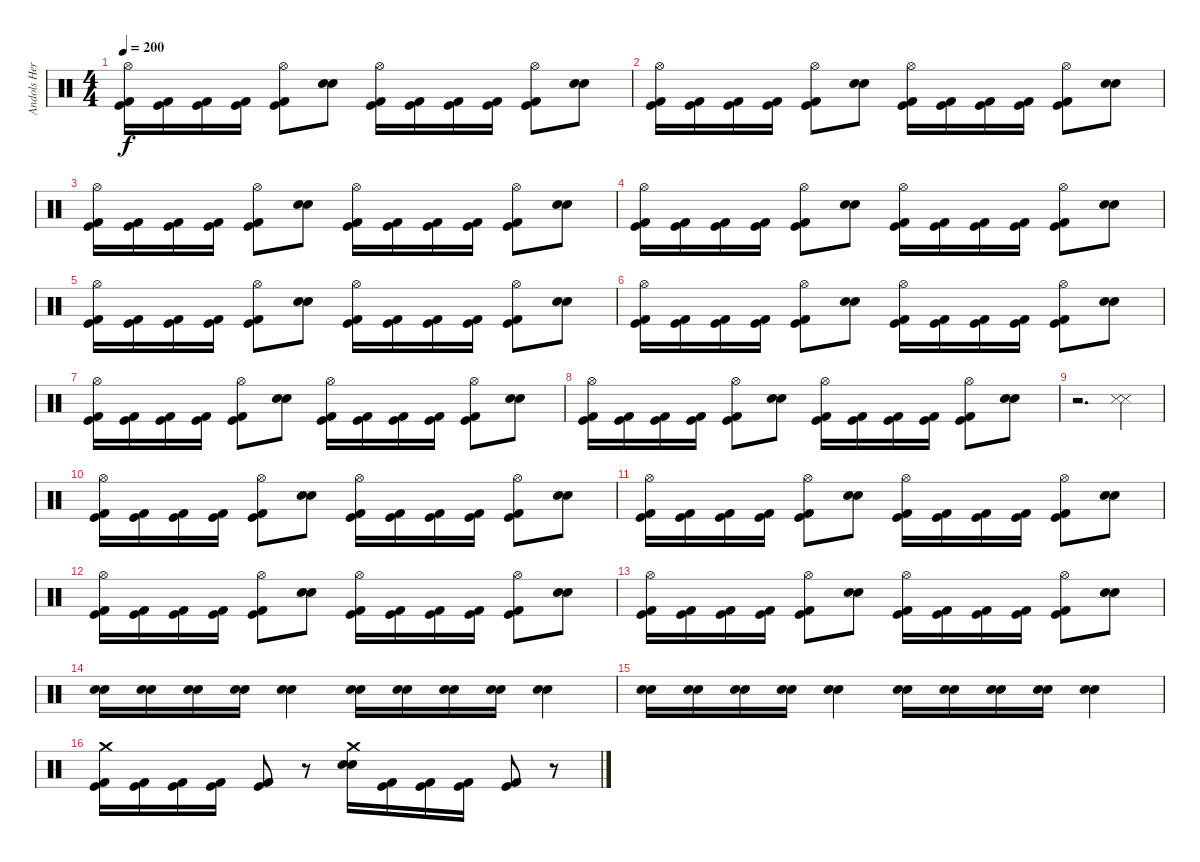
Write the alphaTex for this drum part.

\track ("Andols Herrick" "Andols Her") {instrument percussion}
\staff {score}
\articulation defaults
\ts (4 4)
\tempo 200
\tempo 190
\tempo 200
\clef neutral
\ks c
("Hi-Hat (open)" "Kick (hit) 2" "Kick (hit)").16{dy f volume 8 balance 0} ("Kick (hit) 2" "Kick (hit)").16 ("Kick (hit) 2" "Kick (hit)").16 ("Kick (hit) 2" "Kick (hit)").16 ("Hi-Hat (open)" "Kick (hit) 2" "Kick (hit)").8 ("Electric Snare (hit)" "Snare (hit) 2").8 ("Hi-Hat (open)" "Kick (hit) 2" "Kick (hit)").16 ("Kick (hit) 2" "Kick (hit)").16 ("Kick (hit) 2" "Kick (hit)").16 ("Kick (hit) 2" "Kick (hit)").16 ("Hi-Hat (open)" "Kick (hit) 2" "Kick (hit)").8 ("Electric Snare (hit)" "Snare (hit) 2").8 |
("Hi-Hat (open)" "Kick (hit) 2" "Kick (hit)").16 ("Kick (hit) 2" "Kick (hit)").16 ("Kick (hit) 2" "Kick (hit)").16 ("Kick (hit) 2" "Kick (hit)").16 ("Hi-Hat (open)" "Kick (hit) 2" "Kick (hit)").8 ("Electric Snare (hit)" "Snare (hit) 2").8 ("Hi-Hat (open)" "Kick (hit) 2" "Kick (hit)").16 ("Kick (hit) 2" "Kick (hit)").16 ("Kick (hit) 2" "Kick (hit)").16 ("Kick (hit) 2" "Kick (hit)").16 ("Hi-Hat (open)" "Kick (hit) 2" "Kick (hit)").8 ("Electric Snare (hit)" "Snare (hit) 2").8 |
("Hi-Hat (open)" "Kick (hit) 2" "Kick (hit)").16 ("Kick (hit) 2" "Kick (hit)").16 ("Kick (hit) 2" "Kick (hit)").16 ("Kick (hit) 2" "Kick (hit)").16 ("Hi-Hat (open)" "Kick (hit) 2" "Kick (hit)").8 ("Electric Snare (hit)" "Snare (hit) 2").8 ("Hi-Hat (open)" "Kick (hit) 2" "Kick (hit)").16 ("Kick (hit) 2" "Kick (hit)").16 ("Kick (hit) 2" "Kick (hit)").16 ("Kick (hit) 2" "Kick (hit)").16 ("Hi-Hat (open)" "Kick (hit) 2" "Kick (hit)").8 ("Electric Snare (hit)" "Snare (hit) 2").8 |
("Hi-Hat (open)" "Kick (hit) 2" "Kick (hit)").16 ("Kick (hit) 2" "Kick (hit)").16 ("Kick (hit) 2" "Kick (hit)").16 ("Kick (hit) 2" "Kick (hit)").16 ("Hi-Hat (open)" "Kick (hit) 2" "Kick (hit)").8 ("Electric Snare (hit)" "Snare (hit) 2").8 ("Hi-Hat (open)" "Kick (hit) 2" "Kick (hit)").16 ("Kick (hit) 2" "Kick (hit)").16 ("Kick (hit) 2" "Kick (hit)").16 ("Kick (hit) 2" "Kick (hit)").16 ("Hi-Hat (open)" "Kick (hit) 2" "Kick (hit)").8 ("Electric Snare (hit)" "Snare (hit) 2").8 |
("Hi-Hat (open)" "Kick (hit) 2" "Kick (hit)").16 ("Kick (hit) 2" "Kick (hit)").16 ("Kick (hit) 2" "Kick (hit)").16 ("Kick (hit) 2" "Kick (hit)").16 ("Hi-Hat (open)" "Kick (hit) 2" "Kick (hit)").8 ("Electric Snare (hit)" "Snare (hit) 2").8 ("Hi-Hat (open)" "Kick (hit) 2" "Kick (hit)").16 ("Kick (hit) 2" "Kick (hit)").16 ("Kick (hit) 2" "Kick (hit)").16 ("Kick (hit) 2" "Kick (hit)").16 ("Hi-Hat (open)" "Kick (hit) 2" "Kick (hit)").8 ("Electric Snare (hit)" "Snare (hit) 2").8 |
("Hi-Hat (open)" "Kick (hit) 2" "Kick (hit)").16 ("Kick (hit) 2" "Kick (hit)").16 ("Kick (hit) 2" "Kick (hit)").16 ("Kick (hit) 2" "Kick (hit)").16 ("Hi-Hat (open)" "Kick (hit) 2" "Kick (hit)").8 ("Electric Snare (hit)" "Snare (hit) 2").8 ("Hi-Hat (open)" "Kick (hit) 2" "Kick (hit)").16 ("Kick (hit) 2" "Kick (hit)").16 ("Kick (hit) 2" "Kick (hit)").16 ("Kick (hit) 2" "Kick (hit)").16 ("Hi-Hat (open)" "Kick (hit) 2" "Kick (hit)").8 ("Electric Snare (hit)" "Snare (hit) 2").8 |
("Hi-Hat (open)" "Kick (hit) 2" "Kick (hit)").16 ("Kick (hit) 2" "Kick (hit)").16 ("Kick (hit) 2" "Kick (hit)").16 ("Kick (hit) 2" "Kick (hit)").16 ("Hi-Hat (open)" "Kick (hit) 2" "Kick (hit)").8 ("Electric Snare (hit)" "Snare (hit) 2").8 ("Hi-Hat (open)" "Kick (hit) 2" "Kick (hit)").16 ("Kick (hit) 2" "Kick (hit)").16 ("Kick (hit) 2" "Kick (hit)").16 ("Kick (hit) 2" "Kick (hit)").16 ("Hi-Hat (open)" "Kick (hit) 2" "Kick (hit)").8 ("Electric Snare (hit)" "Snare (hit) 2").8 |
("Hi-Hat (open)" "Kick (hit) 2" "Kick (hit)").16 ("Kick (hit) 2" "Kick (hit)").16 ("Kick (hit) 2" "Kick (hit)").16 ("Kick (hit) 2" "Kick (hit)").16 ("Hi-Hat (open)" "Kick (hit) 2" "Kick (hit)").8 ("Electric Snare (hit)" "Snare (hit) 2").8 ("Hi-Hat (open)" "Kick (hit) 2" "Kick (hit)").16 ("Kick (hit) 2" "Kick (hit)").16 ("Kick (hit) 2" "Kick (hit)").16 ("Kick (hit) 2" "Kick (hit)").16 ("Hi-Hat (open)" "Kick (hit) 2" "Kick (hit)").8 ("Electric Snare (hit)" "Snare (hit) 2").8 |
r.2{d volume 16 balance 8} ("Snare (side stick) 3" "Snare (side stick) 3").4 |
("Hi-Hat (open)" "Kick (hit) 2" "Kick (hit)").16{volume 16 balance 8} ("Kick (hit) 2" "Kick (hit)").16 ("Kick (hit) 2" "Kick (hit)").16 ("Kick (hit) 2" "Kick (hit)").16 ("Hi-Hat (open)" "Kick (hit) 2" "Kick (hit)").8 ("Electric Snare (hit)" "Snare (hit) 2").8 ("Hi-Hat (open)" "Kick (hit) 2" "Kick (hit)").16 ("Kick (hit) 2" "Kick (hit)").16 ("Kick (hit) 2" "Kick (hit)").16 ("Kick (hit) 2" "Kick (hit)").16 ("Hi-Hat (open)" "Kick (hit) 2" "Kick (hit)").8 ("Electric Snare (hit)" "Snare (hit) 2").8 |
("Hi-Hat (open)" "Kick (hit) 2" "Kick (hit)").16 ("Kick (hit) 2" "Kick (hit)").16 ("Kick (hit) 2" "Kick (hit)").16 ("Kick (hit) 2" "Kick (hit)").16 ("Hi-Hat (open)" "Kick (hit) 2" "Kick (hit)").8 ("Electric Snare (hit)" "Snare (hit) 2").8 ("Hi-Hat (open)" "Kick (hit) 2" "Kick (hit)").16 ("Kick (hit) 2" "Kick (hit)").16 ("Kick (hit) 2" "Kick (hit)").16 ("Kick (hit) 2" "Kick (hit)").16 ("Hi-Hat (open)" "Kick (hit) 2" "Kick (hit)").8 ("Electric Snare (hit)" "Snare (hit) 2").8 |
("Hi-Hat (open)" "Kick (hit) 2" "Kick (hit)").16 ("Kick (hit) 2" "Kick (hit)").16 ("Kick (hit) 2" "Kick (hit)").16 ("Kick (hit) 2" "Kick (hit)").16 ("Hi-Hat (open)" "Kick (hit) 2" "Kick (hit)").8 ("Electric Snare (hit)" "Snare (hit) 2").8 ("Hi-Hat (open)" "Kick (hit) 2" "Kick (hit)").16 ("Kick (hit) 2" "Kick (hit)").16 ("Kick (hit) 2" "Kick (hit)").16 ("Kick (hit) 2" "Kick (hit)").16 ("Hi-Hat (open)" "Kick (hit) 2" "Kick (hit)").8 ("Electric Snare (hit)" "Snare (hit) 2").8 |
("Hi-Hat (open)" "Kick (hit) 2" "Kick (hit)").16 ("Kick (hit) 2" "Kick (hit)").16 ("Kick (hit) 2" "Kick (hit)").16 ("Kick (hit) 2" "Kick (hit)").16 ("Hi-Hat (open)" "Kick (hit) 2" "Kick (hit)").8 ("Electric Snare (hit)" "Snare (hit) 2").8 ("Hi-Hat (open)" "Kick (hit) 2" "Kick (hit)").16 ("Kick (hit) 2" "Kick (hit)").16 ("Kick (hit) 2" "Kick (hit)").16 ("Kick (hit) 2" "Kick (hit)").16 ("Hi-Hat (open)" "Kick (hit) 2" "Kick (hit)").8 ("Electric Snare (hit)" "Snare (hit) 2").8 |
("Electric Snare (hit)" "Snare (hit) 2").16 ("Electric Snare (hit)" "Snare (hit) 2").16 ("Electric Snare (hit)" "Snare (hit) 2").16 ("Electric Snare (hit)" "Snare (hit) 2").16 ("Electric Snare (hit)" "Snare (hit) 2").4 ("Electric Snare (hit)" "Snare (hit) 2").16 ("Electric Snare (hit)" "Snare (hit) 2").16 ("Electric Snare (hit)" "Snare (hit) 2").16 ("Electric Snare (hit)" "Snare (hit) 2").16 ("Electric Snare (hit)" "Snare (hit) 2").4 |
("Electric Snare (hit)" "Snare (hit) 2").16 ("Electric Snare (hit)" "Snare (hit) 2").16 ("Electric Snare (hit)" "Snare (hit) 2").16 ("Electric Snare (hit)" "Snare (hit) 2").16 ("Electric Snare (hit)" "Snare (hit) 2").4 ("Electric Snare (hit)" "Snare (hit) 2").16 ("Electric Snare (hit)" "Snare (hit) 2").16 ("Electric Snare (hit)" "Snare (hit) 2").16 ("Electric Snare (hit)" "Snare (hit) 2").16 ("Electric Snare (hit)" "Snare (hit) 2").4 |
("Crash medium (hit)" "Kick (hit) 2" "Kick (hit)").16 ("Kick (hit) 2" "Kick (hit)").16 ("Kick (hit) 2" "Kick (hit)").16 ("Kick (hit) 2" "Kick (hit)").16 ("Kick (hit) 2" "Kick (hit)").8 r.8 ("Crash medium (hit)" "Electric Snare (hit)" "Snare (hit) 2").16 ("Kick (hit) 2" "Kick (hit)").16 ("Kick (hit) 2" "Kick (hit)").16 ("Kick (hit) 2" "Kick (hit)").16 ("Kick (hit) 2" "Kick (hit)").8 r.8
